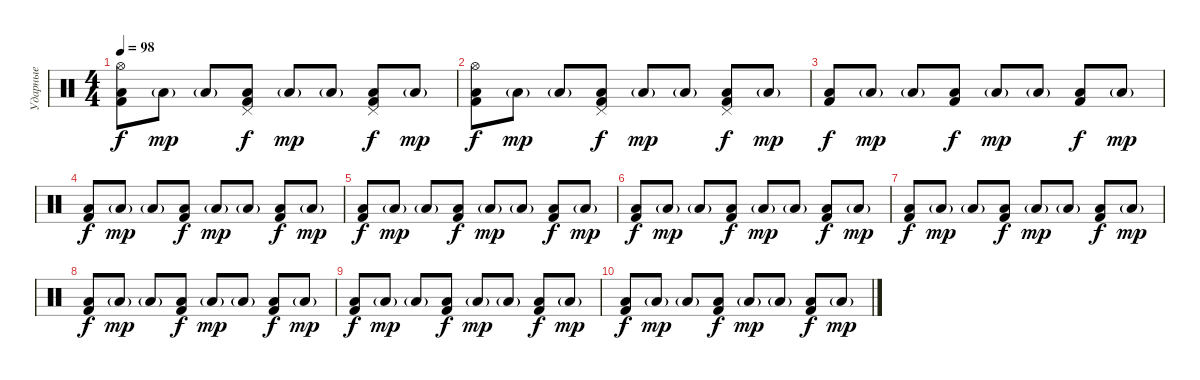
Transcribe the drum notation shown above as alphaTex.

\track ("Ударные" "Ударные") {instrument percussion}
\staff {score}
\articulation defaults
\ts (4 4)
\tempo 98
\clef neutral
\ks c
("Hi-Hat (open)" "Kick (hit) 2" "Low Tom (hit)").8{dy f} "Low Tom (hit)"{g}.8{dy mp} "Low Tom (hit)"{g}.8 ("Pedal Hi-Hat (hit)" "Kick (hit) 2" "Low Tom (hit)").8{dy f} "Low Tom (hit)"{g}.8{dy mp} "Low Tom (hit)"{g}.8 ("Pedal Hi-Hat (hit)" "Kick (hit) 2" "Low Tom (hit)").8{dy f} "Low Tom (hit)"{g}.8{dy mp} |
("Hi-Hat (open)" "Kick (hit) 2" "Low Tom (hit)").8{dy f} "Low Tom (hit)"{g}.8{dy mp} "Low Tom (hit)"{g}.8 ("Pedal Hi-Hat (hit)" "Kick (hit) 2" "Low Tom (hit)").8{dy f} "Low Tom (hit)"{g}.8{dy mp} "Low Tom (hit)"{g}.8 ("Pedal Hi-Hat (hit)" "Kick (hit) 2" "Low Tom (hit)").8{dy f} "Low Tom (hit)"{g}.8{dy mp} |
("Kick (hit) 2" "Low Tom (hit)").8{dy f} "Low Tom (hit)"{g}.8{dy mp} "Low Tom (hit)"{g}.8 ("Kick (hit) 2" "Low Tom (hit)").8{dy f} "Low Tom (hit)"{g}.8{dy mp} "Low Tom (hit)"{g}.8 ("Kick (hit) 2" "Low Tom (hit)").8{dy f} "Low Tom (hit)"{g}.8{dy mp} |
("Kick (hit) 2" "Low Tom (hit)").8{dy f} "Low Tom (hit)"{g}.8{dy mp} "Low Tom (hit)"{g}.8 ("Kick (hit) 2" "Low Tom (hit)").8{dy f} "Low Tom (hit)"{g}.8{dy mp} "Low Tom (hit)"{g}.8 ("Kick (hit) 2" "Low Tom (hit)").8{dy f} "Low Tom (hit)"{g}.8{dy mp} |
("Kick (hit) 2" "Low Tom (hit)").8{dy f} "Low Tom (hit)"{g}.8{dy mp} "Low Tom (hit)"{g}.8 ("Kick (hit) 2" "Low Tom (hit)").8{dy f} "Low Tom (hit)"{g}.8{dy mp} "Low Tom (hit)"{g}.8 ("Kick (hit) 2" "Low Tom (hit)").8{dy f} "Low Tom (hit)"{g}.8{dy mp} |
("Kick (hit) 2" "Low Tom (hit)").8{dy f} "Low Tom (hit)"{g}.8{dy mp} "Low Tom (hit)"{g}.8 ("Kick (hit) 2" "Low Tom (hit)").8{dy f} "Low Tom (hit)"{g}.8{dy mp} "Low Tom (hit)"{g}.8 ("Kick (hit) 2" "Low Tom (hit)").8{dy f} "Low Tom (hit)"{g}.8{dy mp} |
("Kick (hit) 2" "Low Tom (hit)").8{dy f} "Low Tom (hit)"{g}.8{dy mp} "Low Tom (hit)"{g}.8 ("Kick (hit) 2" "Low Tom (hit)").8{dy f} "Low Tom (hit)"{g}.8{dy mp} "Low Tom (hit)"{g}.8 ("Kick (hit) 2" "Low Tom (hit)").8{dy f} "Low Tom (hit)"{g}.8{dy mp} |
("Kick (hit) 2" "Low Tom (hit)").8{dy f} "Low Tom (hit)"{g}.8{dy mp} "Low Tom (hit)"{g}.8 ("Kick (hit) 2" "Low Tom (hit)").8{dy f} "Low Tom (hit)"{g}.8{dy mp} "Low Tom (hit)"{g}.8 ("Kick (hit) 2" "Low Tom (hit)").8{dy f} "Low Tom (hit)"{g}.8{dy mp} |
("Kick (hit) 2" "Low Tom (hit)").8{dy f} "Low Tom (hit)"{g}.8{dy mp} "Low Tom (hit)"{g}.8 ("Kick (hit) 2" "Low Tom (hit)").8{dy f} "Low Tom (hit)"{g}.8{dy mp} "Low Tom (hit)"{g}.8 ("Kick (hit) 2" "Low Tom (hit)").8{dy f} "Low Tom (hit)"{g}.8{dy mp} |
("Kick (hit) 2" "Low Tom (hit)").8{dy f} "Low Tom (hit)"{g}.8{dy mp} "Low Tom (hit)"{g}.8 ("Kick (hit) 2" "Low Tom (hit)").8{dy f} "Low Tom (hit)"{g}.8{dy mp} "Low Tom (hit)"{g}.8 ("Kick (hit) 2" "Low Tom (hit)").8{dy f} "Low Tom (hit)"{g}.8{dy mp}
